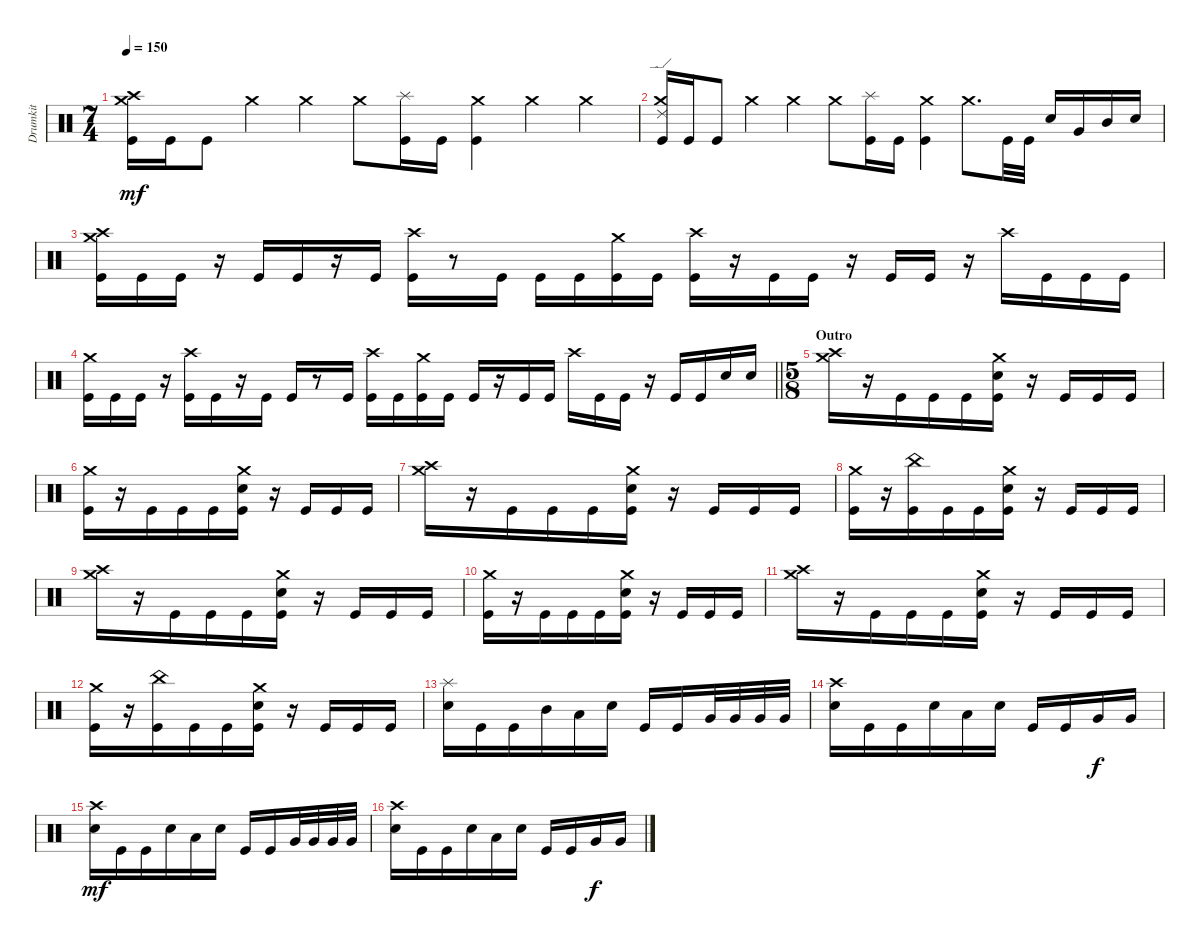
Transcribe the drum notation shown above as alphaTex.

\track ("Drumkit" "Drumkit") {instrument percussion}
\staff {score}
\articulation defaults
\ts (7 4)
\tempo 150
\clef neutral
\ks c
("Kick (hit)" "Crash medium (hit)" "Crash high (hit)").16{dy mf} "Kick (hit)".16 "Kick (hit)".8 "Crash medium (hit)".4 "Crash medium (hit)".4 "Crash medium (hit)".8 ("Kick (hit)" "Splash (hit)").16 "Kick (hit)".16 ("Kick (hit)" "Crash medium (hit)").4 "Crash medium (hit)".4 "Crash medium (hit)".4 |
("Kick (hit)" "Crash medium (hit)" "Ride (edge) 2").16 "Kick (hit)".16 "Kick (hit)".8 "Crash medium (hit)".4 "Crash medium (hit)".4 "Crash medium (hit)".8 ("Kick (hit)" "Splash (hit)").16 "Kick (hit)".16 ("Kick (hit)" "Crash medium (hit)").4 "Crash medium (hit)".8{d} "Kick (hit)".32 "Kick (hit)".32 "Snare (hit) 2".16 "Very Low Tom (hit)".16 "Mid Tom (hit)".16 "Snare (hit) 2".16 |
("Kick (hit)" "Crash high (hit)" "Crash medium (hit)").16 "Kick (hit)".16 "Kick (hit)".16 r.16 "Kick (hit)".16 "Kick (hit)".16 r.16 "Kick (hit)".16 ("Kick (hit)" "Crash high (hit)").16 r.8 "Kick (hit)".16 "Kick (hit)".16 "Kick (hit)".16 ("Kick (hit)" "Crash medium (hit)").16 "Kick (hit)".16 ("Kick (hit)" "Crash high (hit)").16 r.16 "Kick (hit)".16 "Kick (hit)".16 r.16 "Kick (hit)".16 "Kick (hit)".16 r.16 "Crash high (hit)".16 "Kick (hit)".16 "Kick (hit)".16 "Kick (hit)".16 |
\barLineRight lightlight
("Kick (hit)" "Crash medium (hit)").16 "Kick (hit)".16 "Kick (hit)".16 r.16 ("Kick (hit)" "Crash high (hit)").16 "Kick (hit)".16 r.16 "Kick (hit)".16 "Kick (hit)".16 r.8 "Kick (hit)".16 ("Kick (hit)" "Crash high (hit)").16 "Kick (hit)".16 ("Kick (hit)" "Crash medium (hit)").16 "Kick (hit)".16 "Kick (hit)".16 r.16 "Kick (hit)".16 "Kick (hit)".16 "Crash high (hit)".16 "Kick (hit)".16 "Kick (hit)".16 r.16 "Kick (hit)".16 "Kick (hit)".16 "Snare (hit) 2".16 "Snare (hit) 2".16 |
\ts (5 8)
\section ("" "Outro")
("Crash medium (hit)" "Crash high (hit)").16 r.16 "Kick (hit)".16 "Kick (hit)".16 "Kick (hit)".16 ("Crash medium (hit)" "Snare (hit) 2" "Kick (hit)").16 r.16 "Kick (hit)".16 "Kick (hit)".16 "Kick (hit)".16 |
("Crash medium (hit)" "Kick (hit)").16 r.16 "Kick (hit)".16 "Kick (hit)".16 "Kick (hit)".16 ("Crash medium (hit)" "Snare (hit) 2" "Kick (hit)").16 r.16 "Kick (hit)".16 "Kick (hit)".16 "Kick (hit)".16 |
("Crash medium (hit)" "Crash high (hit)").16 r.16 "Kick (hit)".16 "Kick (hit)".16 "Kick (hit)".16 ("Crash medium (hit)" "Snare (hit) 2" "Kick (hit)").16 r.16 "Kick (hit)".16 "Kick (hit)".16 "Kick (hit)".16 |
("Crash medium (hit)" "Kick (hit)").16 r.16 ("Kick (hit)" "China (hit)").16 "Kick (hit)".16 "Kick (hit)".16 ("Crash medium (hit)" "Snare (hit) 2" "Kick (hit)").16 r.16 "Kick (hit)".16 "Kick (hit)".16 "Kick (hit)".16 |
("Crash medium (hit)" "Crash high (hit)").16 r.16 "Kick (hit)".16 "Kick (hit)".16 "Kick (hit)".16 ("Crash medium (hit)" "Snare (hit) 2" "Kick (hit)").16 r.16 "Kick (hit)".16 "Kick (hit)".16 "Kick (hit)".16 |
("Crash medium (hit)" "Kick (hit)").16 r.16 "Kick (hit)".16 "Kick (hit)".16 "Kick (hit)".16 ("Crash medium (hit)" "Snare (hit) 2" "Kick (hit)").16 r.16 "Kick (hit)".16 "Kick (hit)".16 "Kick (hit)".16 |
("Crash medium (hit)" "Crash high (hit)").16 r.16 "Kick (hit)".16 "Kick (hit)".16 "Kick (hit)".16 ("Crash medium (hit)" "Snare (hit) 2" "Kick (hit)").16 r.16 "Kick (hit)".16 "Kick (hit)".16 "Kick (hit)".16 |
("Crash medium (hit)" "Kick (hit)").16 r.16 ("Kick (hit)" "China (hit)").16 "Kick (hit)".16 "Kick (hit)".16 ("Crash medium (hit)" "Snare (hit) 2" "Kick (hit)").16 r.16 "Kick (hit)".16 "Kick (hit)".16 "Kick (hit)".16 |
("Snare (hit) 2" "Splash (hit)").16 "Kick (hit)".16 "Kick (hit)".16 "Mid Tom (hit)".16 "Low Tom (hit)".16 "Snare (hit) 2".16 "Kick (hit)".16 "Kick (hit)".16 "Very Low Tom (hit)".32 "Very Low Tom (hit)".32 "Very Low Tom (hit)".32 "Very Low Tom (hit)".32 |
("Snare (hit) 2" "Crash high (hit)").16 "Kick (hit)".16 "Kick (hit)".16 "Snare (hit) 2".16 "Low Tom (hit)".16 "Snare (hit) 2".16 "Kick (hit)".16 "Kick (hit)".16 "Very Low Tom (hit)".16{dy f} "Very Low Tom (hit)".16 |
("Snare (hit) 2" "Crash high (hit)").16{dy mf} "Kick (hit)".16 "Kick (hit)".16 "Snare (hit) 2".16 "Low Tom (hit)".16 "Snare (hit) 2".16 "Kick (hit)".16 "Kick (hit)".16 "Very Low Tom (hit)".32 "Very Low Tom (hit)".32 "Very Low Tom (hit)".32 "Very Low Tom (hit)".32 |
("Snare (hit) 2" "Crash high (hit)").16 "Kick (hit)".16 "Kick (hit)".16 "Snare (hit) 2".16 "Low Tom (hit)".16 "Snare (hit) 2".16 "Kick (hit)".16 "Kick (hit)".16 "Very Low Tom (hit)".16{dy f} "Very Low Tom (hit)".16
